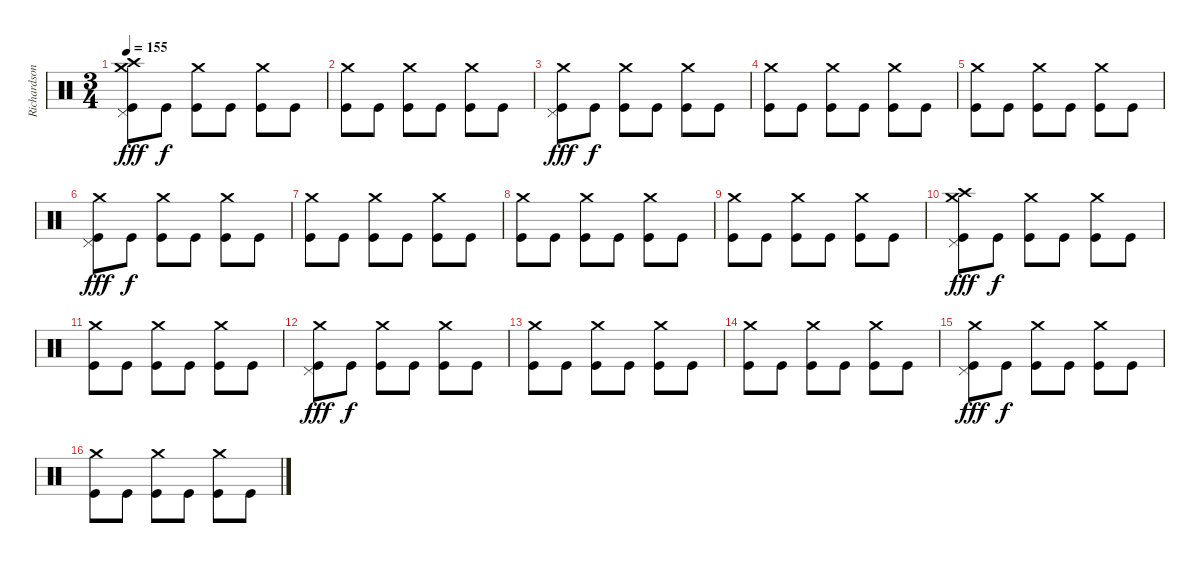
\track ("Richardson" "Richardson") {instrument percussion}
\staff {score}
\articulation defaults
\ts (3 4)
\tempo 155
\clef neutral
\ks c
("Crash medium (hit)" "Crash high (hit)" "Pedal Hi-Hat (hit)" "Kick (hit)").8{dy fff} "Kick (hit)".8{dy f} ("Crash medium (hit)" "Kick (hit)").8 "Kick (hit)".8 ("Crash medium (hit)" "Kick (hit)").8 "Kick (hit)".8 |
("Crash medium (hit)" "Kick (hit)").8 "Kick (hit)".8 ("Crash medium (hit)" "Kick (hit)").8 "Kick (hit)".8 ("Crash medium (hit)" "Kick (hit)").8 "Kick (hit)".8 |
("Crash medium (hit)" "Pedal Hi-Hat (hit)" "Kick (hit)").8{dy fff} "Kick (hit)".8{dy f} ("Crash medium (hit)" "Kick (hit)").8 "Kick (hit)".8 ("Crash medium (hit)" "Kick (hit)").8 "Kick (hit)".8 |
("Crash medium (hit)" "Kick (hit)").8 "Kick (hit)".8 ("Crash medium (hit)" "Kick (hit)").8 "Kick (hit)".8 ("Crash medium (hit)" "Kick (hit)").8 "Kick (hit)".8 |
("Crash medium (hit)" "Kick (hit)").8 "Kick (hit)".8 ("Crash medium (hit)" "Kick (hit)").8 "Kick (hit)".8 ("Crash medium (hit)" "Kick (hit)").8 "Kick (hit)".8 |
("Crash medium (hit)" "Pedal Hi-Hat (hit)" "Kick (hit)").8{dy fff} "Kick (hit)".8{dy f} ("Crash medium (hit)" "Kick (hit)").8 "Kick (hit)".8 ("Crash medium (hit)" "Kick (hit)").8 "Kick (hit)".8 |
("Crash medium (hit)" "Kick (hit)").8 "Kick (hit)".8 ("Crash medium (hit)" "Kick (hit)").8 "Kick (hit)".8 ("Crash medium (hit)" "Kick (hit)").8 "Kick (hit)".8 |
("Crash medium (hit)" "Kick (hit)").8 "Kick (hit)".8 ("Crash medium (hit)" "Kick (hit)").8 "Kick (hit)".8 ("Crash medium (hit)" "Kick (hit)").8 "Kick (hit)".8 |
("Crash medium (hit)" "Kick (hit)").8 "Kick (hit)".8 ("Crash medium (hit)" "Kick (hit)").8 "Kick (hit)".8 ("Crash medium (hit)" "Kick (hit)").8 "Kick (hit)".8 |
("Crash medium (hit)" "Crash high (hit)" "Pedal Hi-Hat (hit)" "Kick (hit)").8{dy fff} "Kick (hit)".8{dy f} ("Crash medium (hit)" "Kick (hit)").8 "Kick (hit)".8 ("Crash medium (hit)" "Kick (hit)").8 "Kick (hit)".8 |
("Crash medium (hit)" "Kick (hit)").8 "Kick (hit)".8 ("Crash medium (hit)" "Kick (hit)").8 "Kick (hit)".8 ("Crash medium (hit)" "Kick (hit)").8 "Kick (hit)".8 |
("Crash medium (hit)" "Pedal Hi-Hat (hit)" "Kick (hit)").8{dy fff} "Kick (hit)".8{dy f} ("Crash medium (hit)" "Kick (hit)").8 "Kick (hit)".8 ("Crash medium (hit)" "Kick (hit)").8 "Kick (hit)".8 |
("Crash medium (hit)" "Kick (hit)").8 "Kick (hit)".8 ("Crash medium (hit)" "Kick (hit)").8 "Kick (hit)".8 ("Crash medium (hit)" "Kick (hit)").8 "Kick (hit)".8 |
("Crash medium (hit)" "Kick (hit)").8 "Kick (hit)".8 ("Crash medium (hit)" "Kick (hit)").8 "Kick (hit)".8 ("Crash medium (hit)" "Kick (hit)").8 "Kick (hit)".8 |
("Crash medium (hit)" "Pedal Hi-Hat (hit)" "Kick (hit)").8{dy fff} "Kick (hit)".8{dy f} ("Crash medium (hit)" "Kick (hit)").8 "Kick (hit)".8 ("Crash medium (hit)" "Kick (hit)").8 "Kick (hit)".8 |
("Crash medium (hit)" "Kick (hit)").8 "Kick (hit)".8 ("Crash medium (hit)" "Kick (hit)").8 "Kick (hit)".8 ("Crash medium (hit)" "Kick (hit)").8 "Kick (hit)".8
